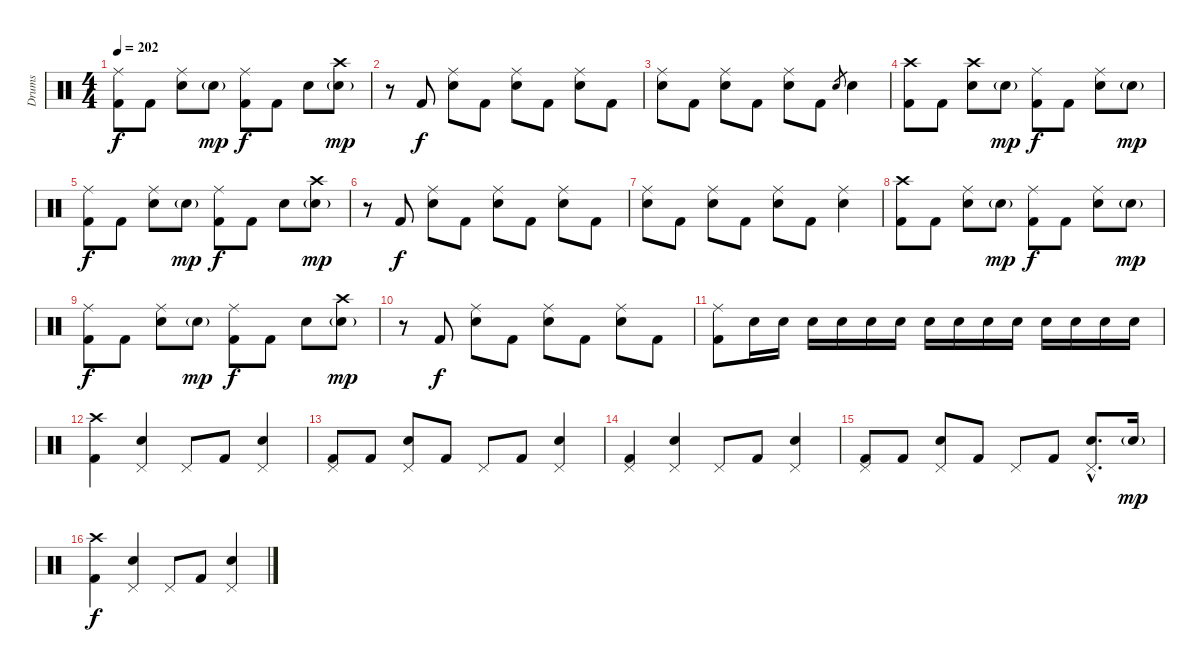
\track ("Drums" "Drums") {instrument percussion}
\staff {score}
\articulation defaults
\ts (4 4)
\tempo 202
\clef neutral
\ks c
("Ride (middle)" "Kick (hit) 2").8{dy f} "Kick (hit) 2".8 ("Ride (middle)" "Electric Snare (hit)").8 "Electric Snare (hit)"{g}.8{dy mp} ("Ride (middle)" "Kick (hit) 2").8{dy f} "Kick (hit) 2".8 "Electric Snare (hit)".8 ("Crash high (hit)" "Electric Snare (hit)"{g}).8{dy mp} |
r.8 "Kick (hit) 2".8{dy f} ("Ride (middle)" "Electric Snare (hit)").8 "Kick (hit) 2".8 ("Ride (middle)" "Electric Snare (hit)").8 "Kick (hit) 2".8 ("Ride (middle)" "Electric Snare (hit)").8 "Kick (hit) 2".8 |
("Ride (middle)" "Electric Snare (hit)").8 "Kick (hit) 2".8 ("Ride (middle)" "Electric Snare (hit)").8 "Kick (hit) 2".8 ("Ride (middle)" "Electric Snare (hit)").8 "Kick (hit) 2".8 "Electric Snare (hit)".8{gr} "Electric Snare (hit)".4 |
("Crash high (hit)" "Kick (hit) 2").8 "Kick (hit) 2".8 ("Crash high (hit)" "Electric Snare (hit)").8 "Electric Snare (hit)"{g}.8{dy mp} ("Ride (middle)" "Kick (hit) 2").8{dy f} "Kick (hit) 2".8 ("Ride (middle)" "Electric Snare (hit)").8 "Electric Snare (hit)"{g}.8{dy mp} |
("Ride (middle)" "Kick (hit) 2").8{dy f} "Kick (hit) 2".8 ("Ride (middle)" "Electric Snare (hit)").8 "Electric Snare (hit)"{g}.8{dy mp} ("Ride (middle)" "Kick (hit) 2").8{dy f} "Kick (hit) 2".8 "Electric Snare (hit)".8 ("Crash high (hit)" "Electric Snare (hit)"{g}).8{dy mp} |
r.8 "Kick (hit) 2".8{dy f} ("Ride (middle)" "Electric Snare (hit)").8 "Kick (hit) 2".8 ("Ride (middle)" "Electric Snare (hit)").8 "Kick (hit) 2".8 ("Ride (middle)" "Electric Snare (hit)").8 "Kick (hit) 2".8 |
("Ride (middle)" "Electric Snare (hit)").8 "Kick (hit) 2".8 ("Ride (middle)" "Electric Snare (hit)").8 "Kick (hit) 2".8 ("Ride (middle)" "Electric Snare (hit)").8 "Kick (hit) 2".8 ("Ride (middle)" "Electric Snare (hit)").4 |
("Crash high (hit)" "Kick (hit) 2").8 "Kick (hit) 2".8 ("Ride (middle)" "Electric Snare (hit)").8 "Electric Snare (hit)"{g}.8{dy mp} ("Ride (middle)" "Kick (hit) 2").8{dy f} "Kick (hit) 2".8 ("Ride (middle)" "Electric Snare (hit)").8 "Electric Snare (hit)"{g}.8{dy mp} |
("Ride (middle)" "Kick (hit) 2").8{dy f} "Kick (hit) 2".8 ("Ride (middle)" "Electric Snare (hit)").8 "Electric Snare (hit)"{g}.8{dy mp} ("Ride (middle)" "Kick (hit) 2").8{dy f} "Kick (hit) 2".8 "Electric Snare (hit)".8 ("Crash high (hit)" "Electric Snare (hit)"{g}).8{dy mp} |
r.8 "Kick (hit) 2".8{dy f} ("Ride (middle)" "Electric Snare (hit)").8 "Kick (hit) 2".8 ("Ride (middle)" "Electric Snare (hit)").8 "Kick (hit) 2".8 ("Ride (middle)" "Electric Snare (hit)").8 "Kick (hit) 2".8 |
("Ride (middle)" "Kick (hit) 2").8 "Electric Snare (hit)".16 "Electric Snare (hit)".16 "Electric Snare (hit)".16 "Electric Snare (hit)".16 "Electric Snare (hit)".16 "Electric Snare (hit)".16 "Electric Snare (hit)".16 "Electric Snare (hit)".16 "Electric Snare (hit)".16 "Electric Snare (hit)".16 "Electric Snare (hit)".16 "Electric Snare (hit)".16 "Electric Snare (hit)".16 "Electric Snare (hit)".16 |
("Crash high (hit)" "Kick (hit) 2").4 ("Pedal Hi-Hat (hit)" "Electric Snare (hit)").4 "Pedal Hi-Hat (hit)".8 "Kick (hit) 2".8 ("Pedal Hi-Hat (hit)" "Electric Snare (hit)").4 |
("Pedal Hi-Hat (hit)" "Kick (hit) 2").8 "Kick (hit) 2".8 ("Pedal Hi-Hat (hit)" "Electric Snare (hit)").8 "Kick (hit) 2".8 "Pedal Hi-Hat (hit)".8 "Kick (hit) 2".8 ("Pedal Hi-Hat (hit)" "Electric Snare (hit)").4 |
("Pedal Hi-Hat (hit)" "Kick (hit) 2").4 ("Pedal Hi-Hat (hit)" "Electric Snare (hit)").4 "Pedal Hi-Hat (hit)".8 "Kick (hit) 2".8 ("Pedal Hi-Hat (hit)" "Electric Snare (hit)").4 |
("Pedal Hi-Hat (hit)" "Kick (hit) 2").8 "Kick (hit) 2".8 ("Pedal Hi-Hat (hit)" "Electric Snare (hit)").8 "Kick (hit) 2".8 "Pedal Hi-Hat (hit)".8 "Kick (hit) 2".8 ("Pedal Hi-Hat (hit)"{hac} "Electric Snare (hit)"{hac}).8{d} "Electric Snare (hit)"{g}.16{dy mp} |
("Crash high (hit)" "Kick (hit) 2").4{dy f} ("Pedal Hi-Hat (hit)" "Electric Snare (hit)").4 "Pedal Hi-Hat (hit)".8 "Kick (hit) 2".8 ("Pedal Hi-Hat (hit)" "Electric Snare (hit)").4
